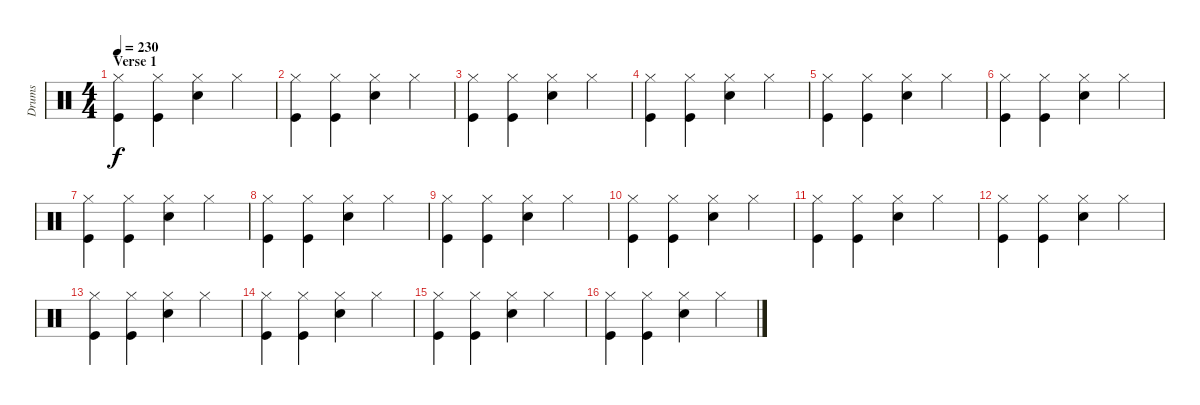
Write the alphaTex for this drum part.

\track ("Drums" "Drums") {instrument percussion}
\staff {score}
\articulation defaults
\ts (4 4)
\section ("" "Verse 1")
\tempo 230
\clef neutral
\ks c
("Hi-Hat (closed)" "Kick (hit)").4{dy f} ("Hi-Hat (closed)" "Kick (hit)").4 ("Hi-Hat (closed)" "Snare (hit) 2").4 "Hi-Hat (closed)".4 |
("Hi-Hat (closed)" "Kick (hit)").4 ("Hi-Hat (closed)" "Kick (hit)").4 ("Hi-Hat (closed)" "Snare (hit) 2").4 "Hi-Hat (closed)".4 |
("Hi-Hat (closed)" "Kick (hit)").4 ("Hi-Hat (closed)" "Kick (hit)").4 ("Hi-Hat (closed)" "Snare (hit) 2").4 "Hi-Hat (closed)".4 |
("Hi-Hat (closed)" "Kick (hit)").4 ("Hi-Hat (closed)" "Kick (hit)").4 ("Hi-Hat (closed)" "Snare (hit) 2").4 "Hi-Hat (closed)".4 |
("Hi-Hat (closed)" "Kick (hit)").4 ("Hi-Hat (closed)" "Kick (hit)").4 ("Hi-Hat (closed)" "Snare (hit) 2").4 "Hi-Hat (closed)".4 |
("Hi-Hat (closed)" "Kick (hit)").4 ("Hi-Hat (closed)" "Kick (hit)").4 ("Hi-Hat (closed)" "Snare (hit) 2").4 "Hi-Hat (closed)".4 |
("Hi-Hat (closed)" "Kick (hit)").4 ("Hi-Hat (closed)" "Kick (hit)").4 ("Hi-Hat (closed)" "Snare (hit) 2").4 "Hi-Hat (closed)".4 |
("Hi-Hat (closed)" "Kick (hit)").4 ("Hi-Hat (closed)" "Kick (hit)").4 ("Hi-Hat (closed)" "Snare (hit) 2").4 "Hi-Hat (closed)".4 |
("Hi-Hat (closed)" "Kick (hit)").4 ("Hi-Hat (closed)" "Kick (hit)").4 ("Hi-Hat (closed)" "Snare (hit) 2").4 "Hi-Hat (closed)".4 |
("Hi-Hat (closed)" "Kick (hit)").4 ("Hi-Hat (closed)" "Kick (hit)").4 ("Hi-Hat (closed)" "Snare (hit) 2").4 "Hi-Hat (closed)".4 |
("Hi-Hat (closed)" "Kick (hit)").4 ("Hi-Hat (closed)" "Kick (hit)").4 ("Hi-Hat (closed)" "Snare (hit) 2").4 "Hi-Hat (closed)".4 |
("Hi-Hat (closed)" "Kick (hit)").4 ("Hi-Hat (closed)" "Kick (hit)").4 ("Hi-Hat (closed)" "Snare (hit) 2").4 "Hi-Hat (closed)".4 |
("Hi-Hat (closed)" "Kick (hit)").4 ("Hi-Hat (closed)" "Kick (hit)").4 ("Hi-Hat (closed)" "Snare (hit) 2").4 "Hi-Hat (closed)".4 |
("Hi-Hat (closed)" "Kick (hit)").4 ("Hi-Hat (closed)" "Kick (hit)").4 ("Hi-Hat (closed)" "Snare (hit) 2").4 "Hi-Hat (closed)".4 |
("Hi-Hat (closed)" "Kick (hit)").4 ("Hi-Hat (closed)" "Kick (hit)").4 ("Hi-Hat (closed)" "Snare (hit) 2").4 "Hi-Hat (closed)".4 |
("Hi-Hat (closed)" "Kick (hit)").4 ("Hi-Hat (closed)" "Kick (hit)").4 ("Hi-Hat (closed)" "Snare (hit) 2").4 "Hi-Hat (closed)".4
